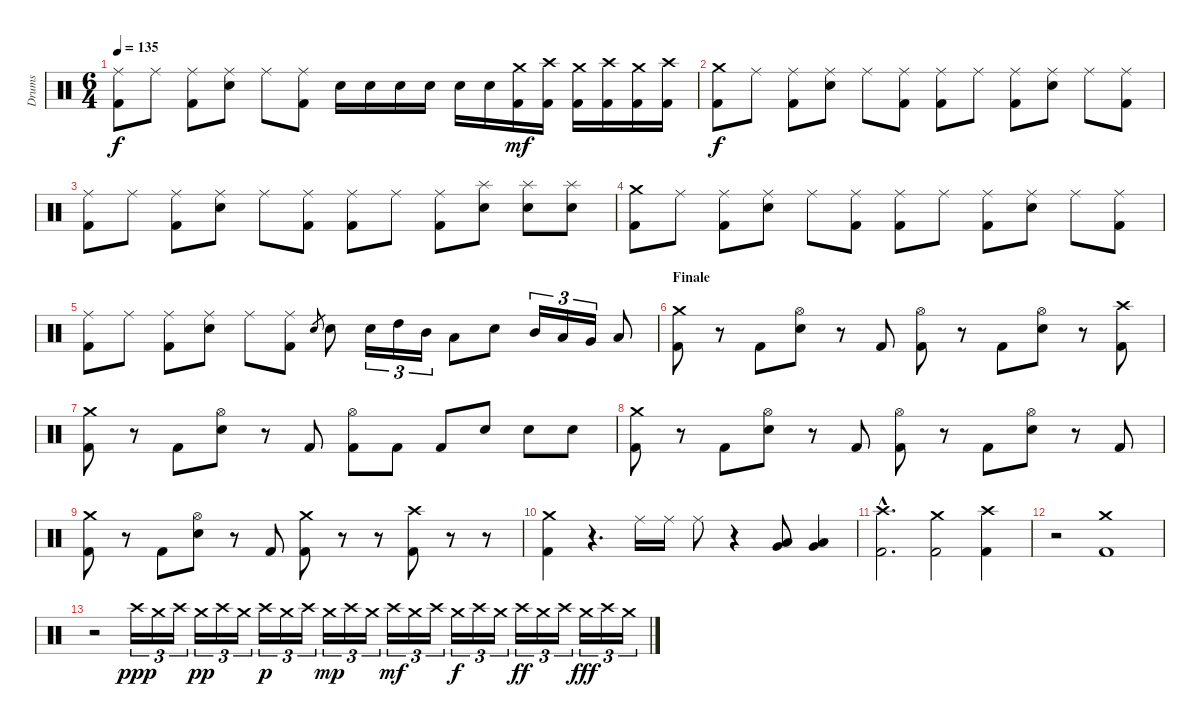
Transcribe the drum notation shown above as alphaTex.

\track ("Drums" "Drums") {instrument percussion}
\staff {score}
\articulation defaults
\ts (6 4)
\tempo 135
\clef neutral
\ks c
("Ride (middle)" "Kick (hit) 2").8{dy f} "Ride (middle)".8 ("Ride (middle)" "Kick (hit) 2").8 ("Ride (middle)" "Snare (hit) 2").8 "Ride (middle)".8 ("Ride (middle)" "Kick (hit) 2").8 "Snare (hit) 2".16 "Snare (hit) 2".16 "Snare (hit) 2".16 "Snare (hit) 2".16 "Snare (hit) 2".16 "Snare (hit) 2".16 ("Crash medium (hit)" "Kick (hit) 2").16{dy mf} ("Crash high (hit)" "Kick (hit) 2").16 ("Crash medium (hit)" "Kick (hit) 2").16 ("Crash high (hit)" "Kick (hit) 2").16 ("Crash medium (hit)" "Kick (hit) 2").16 ("Crash high (hit)" "Kick (hit) 2").16 |
("Crash medium (hit)" "Kick (hit) 2").8{dy f} "Ride (middle)".8 ("Ride (middle)" "Kick (hit) 2").8 ("Ride (middle)" "Snare (hit) 2").8 "Ride (middle)".8 ("Ride (middle)" "Kick (hit) 2").8 ("Ride (middle)" "Kick (hit) 2").8 "Ride (middle)".8 ("Ride (middle)" "Kick (hit) 2").8 ("Ride (middle)" "Snare (hit) 2").8 "Ride (middle)".8 ("Ride (middle)" "Kick (hit) 2").8 |
("Ride (middle)" "Kick (hit) 2").8 "Ride (middle)".8 ("Ride (middle)" "Kick (hit) 2").8 ("Ride (middle)" "Snare (hit) 2").8 "Ride (middle)".8 ("Ride (middle)" "Kick (hit) 2").8 ("Ride (middle)" "Kick (hit) 2").8 "Ride (middle)".8 ("Ride (middle)" "Kick (hit) 2").8 ("Splash (hit)" "Snare (hit) 2").8 ("Splash (hit)" "Snare (hit) 2").8 ("Splash (hit)" "Snare (hit) 2").8 |
("Crash medium (hit)" "Kick (hit) 2").8 "Ride (middle)".8 ("Ride (middle)" "Kick (hit) 2").8 ("Ride (middle)" "Snare (hit) 2").8 "Ride (middle)".8 ("Ride (middle)" "Kick (hit) 2").8 ("Ride (middle)" "Kick (hit) 2").8 "Ride (middle)".8 ("Ride (middle)" "Kick (hit) 2").8 ("Ride (middle)" "Snare (hit) 2").8 "Ride (middle)".8 ("Ride (middle)" "Kick (hit) 2").8 |
("Ride (middle)" "Kick (hit) 2").8 "Ride (middle)".8 ("Ride (middle)" "Kick (hit) 2").8 ("Ride (middle)" "Snare (hit) 2").8 "Ride (middle)".8 ("Ride (middle)" "Kick (hit) 2").8 "Snare (hit) 2".8{gr} "Snare (hit) 2".8 "Snare (hit) 2".16{tu (3 2)} "High Tom (hit)".16{tu (3 2)} "Mid Tom (hit)".16{tu (3 2)} "Low Tom (hit)".8 "Snare (hit) 2".8 "Mid Tom (hit)".16{tu (3 2)} "Low Tom (hit)".16{tu (3 2)} "Very Low Tom (hit)".16{tu (3 2)} "Low Floor Tom (hit)".8 |
\section ("" "Finale")
("Crash medium (hit)" "Kick (hit) 2").8 r.8 "Kick (hit) 2".8 ("Hi-Hat (open)" "Snare (hit) 2").8 r.8 "Kick (hit) 2".8 ("Hi-Hat (open)" "Kick (hit) 2").8 r.8 "Kick (hit) 2".8 ("Hi-Hat (open)" "Snare (hit) 2").8 r.8 ("Crash high (hit)" "Kick (hit) 2").8 |
("Crash medium (hit)" "Kick (hit) 2").8 r.8 "Kick (hit) 2".8 ("Hi-Hat (open)" "Snare (hit) 2").8 r.8 "Kick (hit) 2".8 ("Hi-Hat (open)" "Kick (hit) 2").8 "Kick (hit) 2".8 "Kick (hit) 2".8 "Snare (hit) 2".8 "Snare (hit) 2".8 "Snare (hit) 2".8 |
("Crash medium (hit)" "Kick (hit) 2").8 r.8 "Kick (hit) 2".8 ("Hi-Hat (open)" "Snare (hit) 2").8 r.8 "Kick (hit) 2".8 ("Hi-Hat (open)" "Kick (hit) 2").8 r.8 "Kick (hit) 2".8 ("Hi-Hat (open)" "Snare (hit) 2").8 r.8 "Kick (hit) 2".8 |
("Crash medium (hit)" "Kick (hit) 2").8 r.8 "Kick (hit) 2".8 ("Hi-Hat (open)" "Snare (hit) 2").8 r.8 "Kick (hit) 2".8 ("Crash medium (hit)" "Kick (hit) 2").8 r.8 r.8 ("Crash high (hit)" "Kick (hit) 2").8 r.8 r.8 |
("Crash medium (hit)" "Kick (hit) 2").4 r.4{d} "Ride (middle)".16 "Ride (middle)".16 "Ride (middle)".8 r.4 ("Low Tom (hit)" "Very Low Tom (hit)").8 ("Low Tom (hit)" "Very Low Tom (hit)").4 |
("Crash high (hit)"{hac} "Kick (hit) 2"{hac}).2{d} ("Crash medium (hit)" "Kick (hit) 2").2 ("Crash high (hit)" "Kick (hit) 2").4 |
r.2 ("Crash medium (hit)" "Kick (hit) 2").1 |
r.2 "Crash high (hit)".16{tu (3 2) dy ppp} "Crash medium (hit)".16{tu (3 2)} "Crash high (hit)".16{tu (3 2)} "Crash medium (hit)".16{tu (3 2) dy pp} "Crash high (hit)".16{tu (3 2)} "Crash medium (hit)".16{tu (3 2)} "Crash high (hit)".16{tu (3 2) dy p} "Crash medium (hit)".16{tu (3 2)} "Crash high (hit)".16{tu (3 2)} "Crash medium (hit)".16{tu (3 2) dy mp} "Crash high (hit)".16{tu (3 2)} "Crash medium (hit)".16{tu (3 2)} "Crash high (hit)".16{tu (3 2) dy mf} "Crash medium (hit)".16{tu (3 2)} "Crash high (hit)".16{tu (3 2)} "Crash medium (hit)".16{tu (3 2) dy f} "Crash high (hit)".16{tu (3 2)} "Crash medium (hit)".16{tu (3 2)} "Crash high (hit)".16{tu (3 2) dy ff} "Crash medium (hit)".16{tu (3 2)} "Crash high (hit)".16{tu (3 2)} "Crash medium (hit)".16{tu (3 2) dy fff} "Crash high (hit)".16{tu (3 2)} "Crash medium (hit)".16{tu (3 2)}
